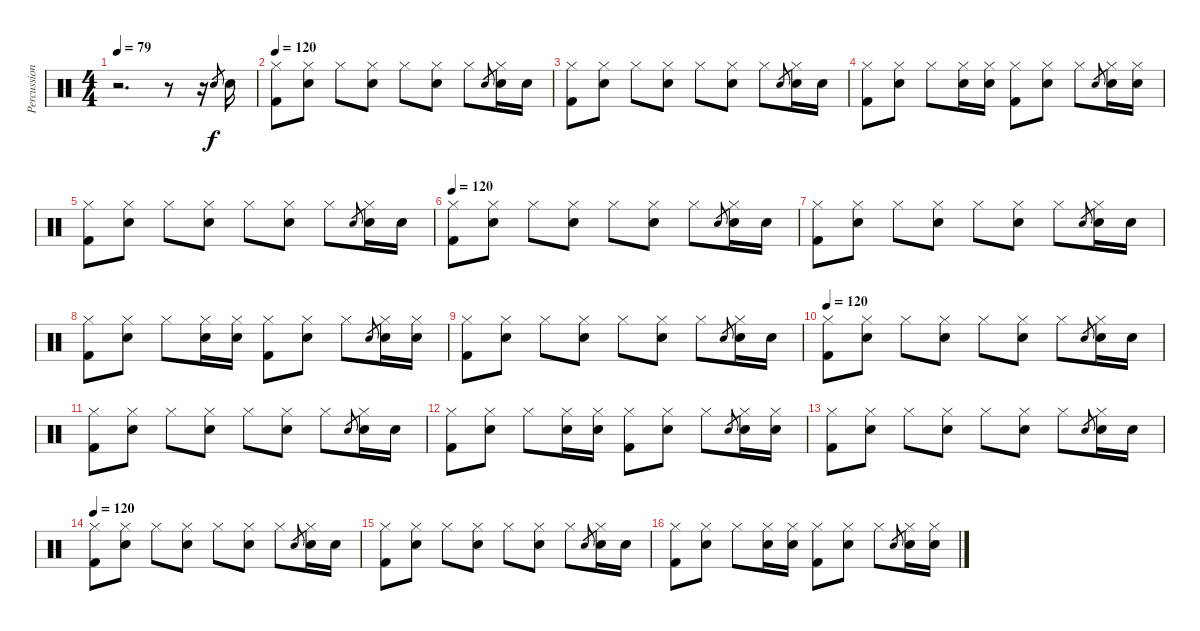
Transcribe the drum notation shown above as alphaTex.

\track ("Percussion" "Percussion") {instrument percussion}
\staff {score}
\articulation defaults
\ts (4 4)
\tempo 79
\clef neutral
\ks c
r.2{d dy f} r.8 r.16 "Electric Snare (hit)".8{gr} "Electric Snare (hit)".16 |
\tempo 120
("Hi-Hat (closed)" "Kick (hit) 2").8 ("Hi-Hat (closed)" "Electric Snare (hit)").8 "Hi-Hat (closed)".8 ("Hi-Hat (closed)" "Electric Snare (hit)").8 "Hi-Hat (closed)".8 ("Hi-Hat (closed)" "Electric Snare (hit)").8 "Hi-Hat (closed)".8 "Electric Snare (hit)".8{gr} ("Hi-Hat (closed)" "Electric Snare (hit)").16 "Electric Snare (hit)".16 |
("Hi-Hat (closed)" "Kick (hit) 2").8 ("Hi-Hat (closed)" "Electric Snare (hit)").8 "Hi-Hat (closed)".8 ("Hi-Hat (closed)" "Electric Snare (hit)").8 "Hi-Hat (closed)".8 ("Hi-Hat (closed)" "Electric Snare (hit)").8 "Hi-Hat (closed)".8 "Electric Snare (hit)".8{gr} ("Hi-Hat (closed)" "Electric Snare (hit)").16 "Electric Snare (hit)".16 |
("Hi-Hat (closed)" "Kick (hit) 2").8 ("Hi-Hat (closed)" "Electric Snare (hit)").8 "Hi-Hat (closed)".8 ("Hi-Hat (closed)" "Electric Snare (hit)").16 ("Hi-Hat (closed)" "Electric Snare (hit)").16 ("Hi-Hat (closed)" "Kick (hit) 2").8 ("Hi-Hat (closed)" "Electric Snare (hit)").8 "Hi-Hat (closed)".8 "Electric Snare (hit)".8{gr} ("Hi-Hat (closed)" "Electric Snare (hit)").16 ("Hi-Hat (closed)" "Electric Snare (hit)").16 |
("Hi-Hat (closed)" "Kick (hit) 2").8 ("Hi-Hat (closed)" "Electric Snare (hit)").8 "Hi-Hat (closed)".8 ("Hi-Hat (closed)" "Electric Snare (hit)").8 "Hi-Hat (closed)".8 ("Hi-Hat (closed)" "Electric Snare (hit)").8 "Hi-Hat (closed)".8 "Electric Snare (hit)".8{gr} ("Hi-Hat (closed)" "Electric Snare (hit)").16 "Electric Snare (hit)".16 |
\tempo 120
("Hi-Hat (closed)" "Kick (hit) 2").8 ("Hi-Hat (closed)" "Electric Snare (hit)").8 "Hi-Hat (closed)".8 ("Hi-Hat (closed)" "Electric Snare (hit)").8 "Hi-Hat (closed)".8 ("Hi-Hat (closed)" "Electric Snare (hit)").8 "Hi-Hat (closed)".8 "Electric Snare (hit)".8{gr} ("Hi-Hat (closed)" "Electric Snare (hit)").16 "Electric Snare (hit)".16 |
("Hi-Hat (closed)" "Kick (hit) 2").8 ("Hi-Hat (closed)" "Electric Snare (hit)").8 "Hi-Hat (closed)".8 ("Hi-Hat (closed)" "Electric Snare (hit)").8 "Hi-Hat (closed)".8 ("Hi-Hat (closed)" "Electric Snare (hit)").8 "Hi-Hat (closed)".8 "Electric Snare (hit)".8{gr} ("Hi-Hat (closed)" "Electric Snare (hit)").16 "Electric Snare (hit)".16 |
("Hi-Hat (closed)" "Kick (hit) 2").8 ("Hi-Hat (closed)" "Electric Snare (hit)").8 "Hi-Hat (closed)".8 ("Hi-Hat (closed)" "Electric Snare (hit)").16 ("Hi-Hat (closed)" "Electric Snare (hit)").16 ("Hi-Hat (closed)" "Kick (hit) 2").8 ("Hi-Hat (closed)" "Electric Snare (hit)").8 "Hi-Hat (closed)".8 "Electric Snare (hit)".8{gr} ("Hi-Hat (closed)" "Electric Snare (hit)").16 ("Hi-Hat (closed)" "Electric Snare (hit)").16 |
("Hi-Hat (closed)" "Kick (hit) 2").8 ("Hi-Hat (closed)" "Electric Snare (hit)").8 "Hi-Hat (closed)".8 ("Hi-Hat (closed)" "Electric Snare (hit)").8 "Hi-Hat (closed)".8 ("Hi-Hat (closed)" "Electric Snare (hit)").8 "Hi-Hat (closed)".8 "Electric Snare (hit)".8{gr} ("Hi-Hat (closed)" "Electric Snare (hit)").16 "Electric Snare (hit)".16 |
\tempo 120
("Hi-Hat (closed)" "Kick (hit) 2").8 ("Hi-Hat (closed)" "Electric Snare (hit)").8 "Hi-Hat (closed)".8 ("Hi-Hat (closed)" "Electric Snare (hit)").8 "Hi-Hat (closed)".8 ("Hi-Hat (closed)" "Electric Snare (hit)").8 "Hi-Hat (closed)".8 "Electric Snare (hit)".8{gr} ("Hi-Hat (closed)" "Electric Snare (hit)").16 "Electric Snare (hit)".16 |
("Hi-Hat (closed)" "Kick (hit) 2").8 ("Hi-Hat (closed)" "Electric Snare (hit)").8 "Hi-Hat (closed)".8 ("Hi-Hat (closed)" "Electric Snare (hit)").8 "Hi-Hat (closed)".8 ("Hi-Hat (closed)" "Electric Snare (hit)").8 "Hi-Hat (closed)".8 "Electric Snare (hit)".8{gr} ("Hi-Hat (closed)" "Electric Snare (hit)").16 "Electric Snare (hit)".16 |
("Hi-Hat (closed)" "Kick (hit) 2").8 ("Hi-Hat (closed)" "Electric Snare (hit)").8 "Hi-Hat (closed)".8 ("Hi-Hat (closed)" "Electric Snare (hit)").16 ("Hi-Hat (closed)" "Electric Snare (hit)").16 ("Hi-Hat (closed)" "Kick (hit) 2").8 ("Hi-Hat (closed)" "Electric Snare (hit)").8 "Hi-Hat (closed)".8 "Electric Snare (hit)".8{gr} ("Hi-Hat (closed)" "Electric Snare (hit)").16 ("Hi-Hat (closed)" "Electric Snare (hit)").16 |
("Hi-Hat (closed)" "Kick (hit) 2").8 ("Hi-Hat (closed)" "Electric Snare (hit)").8 "Hi-Hat (closed)".8 ("Hi-Hat (closed)" "Electric Snare (hit)").8 "Hi-Hat (closed)".8 ("Hi-Hat (closed)" "Electric Snare (hit)").8 "Hi-Hat (closed)".8 "Electric Snare (hit)".8{gr} ("Hi-Hat (closed)" "Electric Snare (hit)").16 "Electric Snare (hit)".16 |
\tempo 120
("Hi-Hat (closed)" "Kick (hit) 2").8 ("Hi-Hat (closed)" "Electric Snare (hit)").8 "Hi-Hat (closed)".8 ("Hi-Hat (closed)" "Electric Snare (hit)").8 "Hi-Hat (closed)".8 ("Hi-Hat (closed)" "Electric Snare (hit)").8 "Hi-Hat (closed)".8 "Electric Snare (hit)".8{gr} ("Hi-Hat (closed)" "Electric Snare (hit)").16 "Electric Snare (hit)".16 |
("Hi-Hat (closed)" "Kick (hit) 2").8 ("Hi-Hat (closed)" "Electric Snare (hit)").8 "Hi-Hat (closed)".8 ("Hi-Hat (closed)" "Electric Snare (hit)").8 "Hi-Hat (closed)".8 ("Hi-Hat (closed)" "Electric Snare (hit)").8 "Hi-Hat (closed)".8 "Electric Snare (hit)".8{gr} ("Hi-Hat (closed)" "Electric Snare (hit)").16 "Electric Snare (hit)".16 |
("Hi-Hat (closed)" "Kick (hit) 2").8 ("Hi-Hat (closed)" "Electric Snare (hit)").8 "Hi-Hat (closed)".8 ("Hi-Hat (closed)" "Electric Snare (hit)").16 ("Hi-Hat (closed)" "Electric Snare (hit)").16 ("Hi-Hat (closed)" "Kick (hit) 2").8 ("Hi-Hat (closed)" "Electric Snare (hit)").8 "Hi-Hat (closed)".8 "Electric Snare (hit)".8{gr} ("Hi-Hat (closed)" "Electric Snare (hit)").16 ("Hi-Hat (closed)" "Electric Snare (hit)").16
